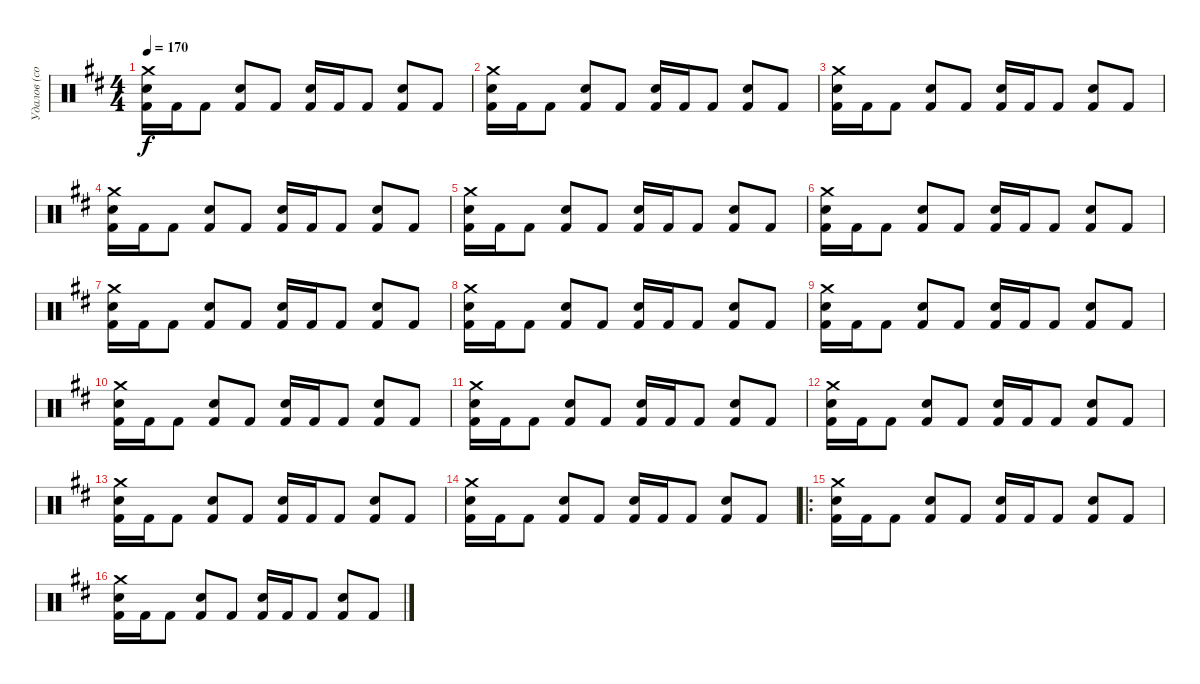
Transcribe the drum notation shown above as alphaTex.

\track ("Удалов (сорри за ударные)" "Удалов (со") {instrument percussion}
\staff {score}
\articulation defaults
\ts (4 4)
\tempo 170
\clef neutral
\ks d
("Crash medium (hit)" "Snare (hit) 2" "Kick (hit) 2").16{dy f} "Kick (hit) 2".16 "Kick (hit) 2".8 ("Snare (hit) 2" "Kick (hit) 2").8 "Kick (hit) 2".8 ("Snare (hit) 2" "Kick (hit) 2").16 "Kick (hit) 2".16 "Kick (hit) 2".8 ("Snare (hit) 2" "Kick (hit) 2").8 "Kick (hit) 2".8 |
("Crash medium (hit)" "Snare (hit) 2" "Kick (hit) 2").16 "Kick (hit) 2".16 "Kick (hit) 2".8 ("Snare (hit) 2" "Kick (hit) 2").8 "Kick (hit) 2".8 ("Snare (hit) 2" "Kick (hit) 2").16 "Kick (hit) 2".16 "Kick (hit) 2".8 ("Snare (hit) 2" "Kick (hit) 2").8 "Kick (hit) 2".8 |
("Crash medium (hit)" "Snare (hit) 2" "Kick (hit) 2").16 "Kick (hit) 2".16 "Kick (hit) 2".8 ("Snare (hit) 2" "Kick (hit) 2").8 "Kick (hit) 2".8 ("Snare (hit) 2" "Kick (hit) 2").16 "Kick (hit) 2".16 "Kick (hit) 2".8 ("Snare (hit) 2" "Kick (hit) 2").8 "Kick (hit) 2".8 |
("Crash medium (hit)" "Snare (hit) 2" "Kick (hit) 2").16 "Kick (hit) 2".16 "Kick (hit) 2".8 ("Snare (hit) 2" "Kick (hit) 2").8 "Kick (hit) 2".8 ("Snare (hit) 2" "Kick (hit) 2").16 "Kick (hit) 2".16 "Kick (hit) 2".8 ("Snare (hit) 2" "Kick (hit) 2").8 "Kick (hit) 2".8 |
("Crash medium (hit)" "Snare (hit) 2" "Kick (hit) 2").16 "Kick (hit) 2".16 "Kick (hit) 2".8 ("Snare (hit) 2" "Kick (hit) 2").8 "Kick (hit) 2".8 ("Snare (hit) 2" "Kick (hit) 2").16 "Kick (hit) 2".16 "Kick (hit) 2".8 ("Snare (hit) 2" "Kick (hit) 2").8 "Kick (hit) 2".8 |
("Crash medium (hit)" "Snare (hit) 2" "Kick (hit) 2").16 "Kick (hit) 2".16 "Kick (hit) 2".8 ("Snare (hit) 2" "Kick (hit) 2").8 "Kick (hit) 2".8 ("Snare (hit) 2" "Kick (hit) 2").16 "Kick (hit) 2".16 "Kick (hit) 2".8 ("Snare (hit) 2" "Kick (hit) 2").8 "Kick (hit) 2".8 |
("Crash medium (hit)" "Snare (hit) 2" "Kick (hit) 2").16 "Kick (hit) 2".16 "Kick (hit) 2".8 ("Snare (hit) 2" "Kick (hit) 2").8 "Kick (hit) 2".8 ("Snare (hit) 2" "Kick (hit) 2").16 "Kick (hit) 2".16 "Kick (hit) 2".8 ("Snare (hit) 2" "Kick (hit) 2").8 "Kick (hit) 2".8 |
("Crash medium (hit)" "Snare (hit) 2" "Kick (hit) 2").16 "Kick (hit) 2".16 "Kick (hit) 2".8 ("Snare (hit) 2" "Kick (hit) 2").8 "Kick (hit) 2".8 ("Snare (hit) 2" "Kick (hit) 2").16 "Kick (hit) 2".16 "Kick (hit) 2".8 ("Snare (hit) 2" "Kick (hit) 2").8 "Kick (hit) 2".8 |
("Crash medium (hit)" "Snare (hit) 2" "Kick (hit) 2").16 "Kick (hit) 2".16 "Kick (hit) 2".8 ("Snare (hit) 2" "Kick (hit) 2").8 "Kick (hit) 2".8 ("Snare (hit) 2" "Kick (hit) 2").16 "Kick (hit) 2".16 "Kick (hit) 2".8 ("Snare (hit) 2" "Kick (hit) 2").8 "Kick (hit) 2".8 |
("Crash medium (hit)" "Snare (hit) 2" "Kick (hit) 2").16 "Kick (hit) 2".16 "Kick (hit) 2".8 ("Snare (hit) 2" "Kick (hit) 2").8 "Kick (hit) 2".8 ("Snare (hit) 2" "Kick (hit) 2").16 "Kick (hit) 2".16 "Kick (hit) 2".8 ("Snare (hit) 2" "Kick (hit) 2").8 "Kick (hit) 2".8 |
("Crash medium (hit)" "Snare (hit) 2" "Kick (hit) 2").16 "Kick (hit) 2".16 "Kick (hit) 2".8 ("Snare (hit) 2" "Kick (hit) 2").8 "Kick (hit) 2".8 ("Snare (hit) 2" "Kick (hit) 2").16 "Kick (hit) 2".16 "Kick (hit) 2".8 ("Snare (hit) 2" "Kick (hit) 2").8 "Kick (hit) 2".8 |
("Crash medium (hit)" "Snare (hit) 2" "Kick (hit) 2").16 "Kick (hit) 2".16 "Kick (hit) 2".8 ("Snare (hit) 2" "Kick (hit) 2").8 "Kick (hit) 2".8 ("Snare (hit) 2" "Kick (hit) 2").16 "Kick (hit) 2".16 "Kick (hit) 2".8 ("Snare (hit) 2" "Kick (hit) 2").8 "Kick (hit) 2".8 |
("Crash medium (hit)" "Snare (hit) 2" "Kick (hit) 2").16 "Kick (hit) 2".16 "Kick (hit) 2".8 ("Snare (hit) 2" "Kick (hit) 2").8 "Kick (hit) 2".8 ("Snare (hit) 2" "Kick (hit) 2").16 "Kick (hit) 2".16 "Kick (hit) 2".8 ("Snare (hit) 2" "Kick (hit) 2").8 "Kick (hit) 2".8 |
("Crash medium (hit)" "Snare (hit) 2" "Kick (hit) 2").16 "Kick (hit) 2".16 "Kick (hit) 2".8 ("Snare (hit) 2" "Kick (hit) 2").8 "Kick (hit) 2".8 ("Snare (hit) 2" "Kick (hit) 2").16 "Kick (hit) 2".16 "Kick (hit) 2".8 ("Snare (hit) 2" "Kick (hit) 2").8 "Kick (hit) 2".8 |
\ro
("Crash medium (hit)" "Snare (hit) 2" "Kick (hit) 2").16 "Kick (hit) 2".16 "Kick (hit) 2".8 ("Snare (hit) 2" "Kick (hit) 2").8 "Kick (hit) 2".8 ("Snare (hit) 2" "Kick (hit) 2").16 "Kick (hit) 2".16 "Kick (hit) 2".8 ("Snare (hit) 2" "Kick (hit) 2").8 "Kick (hit) 2".8 |
("Crash medium (hit)" "Snare (hit) 2" "Kick (hit) 2").16 "Kick (hit) 2".16 "Kick (hit) 2".8 ("Snare (hit) 2" "Kick (hit) 2").8 "Kick (hit) 2".8 ("Snare (hit) 2" "Kick (hit) 2").16 "Kick (hit) 2".16 "Kick (hit) 2".8 ("Snare (hit) 2" "Kick (hit) 2").8 "Kick (hit) 2".8
